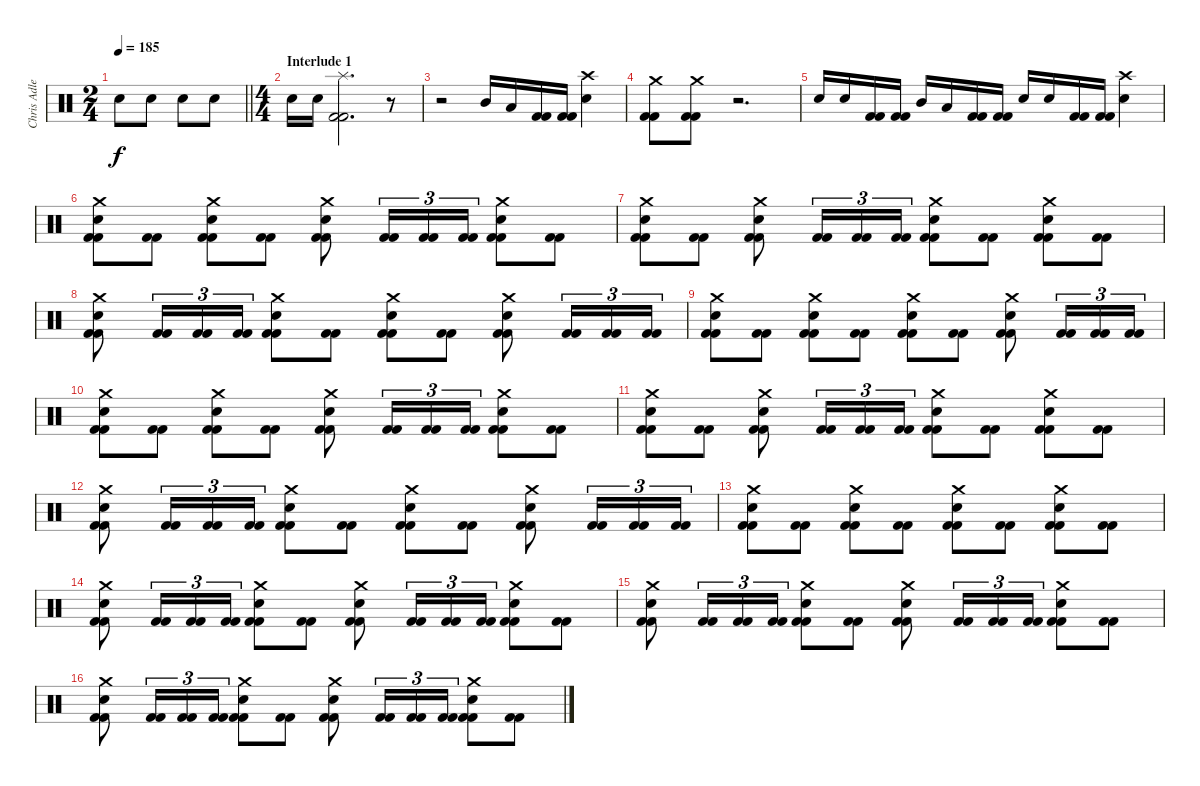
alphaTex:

\track ("Chris Adler" "Chris Adle") {instrument percussion}
\staff {score}
\articulation defaults
\ts (2 4)
\tempo 185
\clef neutral
\barLineRight lightlight
\ks c "Electric Snare (hit)".8{dy f} "Electric Snare (hit)".8 "Electric Snare (hit)".8 "Electric Snare (hit)".8
|
\ts (4 4)
\section ("" "Interlude 1")
"Electric Snare (hit)".16 "Electric Snare (hit)".16 ("Splash (hit)" "Kick (hit) 2" "Kick (hit) 2").2{d} r.8 |
r.2 "Mid Tom (hit)".16 "Low Tom (hit)".16 ("Kick (hit) 2" "Kick (hit) 2").16 ("Kick (hit) 2" "Kick (hit) 2").16 ("Crash high (hit)" "Electric Snare (hit)").4 |
("Crash medium (hit)" "Kick (hit) 2" "Kick (hit) 2").8 ("Crash medium (hit)" "Kick (hit) 2" "Kick (hit) 2").8 r.2{d volume 0} |
"Electric Snare (hit)".16{volume 13} "Electric Snare (hit)".16 ("Kick (hit) 2" "Kick (hit) 2").16 ("Kick (hit) 2" "Kick (hit) 2").16 "Mid Tom (hit)".16 "Low Tom (hit)".16 ("Kick (hit) 2" "Kick (hit) 2").16 ("Kick (hit) 2" "Kick (hit) 2").16 "Electric Snare (hit)".16 "Electric Snare (hit)".16 ("Kick (hit) 2" "Kick (hit) 2").16 ("Kick (hit) 2" "Kick (hit) 2").16 ("Crash high (hit)" "Electric Snare (hit)").4 |
("Crash medium (hit)" "Electric Snare (hit)" "Kick (hit) 2" "Kick (hit) 2").8 ("Kick (hit) 2" "Kick (hit) 2").8 ("Crash medium (hit)" "Electric Snare (hit)" "Kick (hit) 2" "Kick (hit) 2").8 ("Kick (hit) 2" "Kick (hit) 2").8 ("Crash medium (hit)" "Electric Snare (hit)" "Kick (hit) 2" "Kick (hit) 2").8 ("Kick (hit) 2" "Kick (hit) 2").16{tu (3 2)} ("Kick (hit) 2" "Kick (hit) 2").16{tu (3 2)} ("Kick (hit) 2" "Kick (hit) 2").16{tu (3 2)} ("Crash medium (hit)" "Electric Snare (hit)" "Kick (hit) 2" "Kick (hit) 2").8 ("Kick (hit) 2" "Kick (hit) 2").8 |
("Crash medium (hit)" "Electric Snare (hit)" "Kick (hit) 2" "Kick (hit) 2").8 ("Kick (hit) 2" "Kick (hit) 2").8 ("Crash medium (hit)" "Electric Snare (hit)" "Kick (hit) 2" "Kick (hit) 2").8 ("Kick (hit) 2" "Kick (hit) 2").16{tu (3 2)} ("Kick (hit) 2" "Kick (hit) 2").16{tu (3 2)} ("Kick (hit) 2" "Kick (hit) 2").16{tu (3 2)} ("Crash medium (hit)" "Electric Snare (hit)" "Kick (hit) 2" "Kick (hit) 2").8 ("Kick (hit) 2" "Kick (hit) 2").8 ("Crash medium (hit)" "Electric Snare (hit)" "Kick (hit) 2" "Kick (hit) 2").8 ("Kick (hit) 2" "Kick (hit) 2").8 |
("Crash medium (hit)" "Electric Snare (hit)" "Kick (hit) 2" "Kick (hit) 2").8 ("Kick (hit) 2" "Kick (hit) 2").16{tu (3 2)} ("Kick (hit) 2" "Kick (hit) 2").16{tu (3 2)} ("Kick (hit) 2" "Kick (hit) 2").16{tu (3 2)} ("Crash medium (hit)" "Electric Snare (hit)" "Kick (hit) 2" "Kick (hit) 2").8 ("Kick (hit) 2" "Kick (hit) 2").8 ("Crash medium (hit)" "Electric Snare (hit)" "Kick (hit) 2" "Kick (hit) 2").8 ("Kick (hit) 2" "Kick (hit) 2").8 ("Crash medium (hit)" "Electric Snare (hit)" "Kick (hit) 2" "Kick (hit) 2").8 ("Kick (hit) 2" "Kick (hit) 2").16{tu (3 2)} ("Kick (hit) 2" "Kick (hit) 2").16{tu (3 2)} ("Kick (hit) 2" "Kick (hit) 2").16{tu (3 2)} |
("Crash medium (hit)" "Electric Snare (hit)" "Kick (hit) 2" "Kick (hit) 2").8 ("Kick (hit) 2" "Kick (hit) 2").8 ("Crash medium (hit)" "Electric Snare (hit)" "Kick (hit) 2" "Kick (hit) 2").8 ("Kick (hit) 2" "Kick (hit) 2").8 ("Crash medium (hit)" "Electric Snare (hit)" "Kick (hit) 2" "Kick (hit) 2").8 ("Kick (hit) 2" "Kick (hit) 2").8 ("Crash medium (hit)" "Electric Snare (hit)" "Kick (hit) 2" "Kick (hit) 2").8 ("Kick (hit) 2" "Kick (hit) 2").16{tu (3 2)} ("Kick (hit) 2" "Kick (hit) 2").16{tu (3 2)} ("Kick (hit) 2" "Kick (hit) 2").16{tu (3 2)} |
("Crash medium (hit)" "Electric Snare (hit)" "Kick (hit) 2" "Kick (hit) 2").8 ("Kick (hit) 2" "Kick (hit) 2").8 ("Crash medium (hit)" "Electric Snare (hit)" "Kick (hit) 2" "Kick (hit) 2").8 ("Kick (hit) 2" "Kick (hit) 2").8 ("Crash medium (hit)" "Electric Snare (hit)" "Kick (hit) 2" "Kick (hit) 2").8 ("Kick (hit) 2" "Kick (hit) 2").16{tu (3 2)} ("Kick (hit) 2" "Kick (hit) 2").16{tu (3 2)} ("Kick (hit) 2" "Kick (hit) 2").16{tu (3 2)} ("Crash medium (hit)" "Electric Snare (hit)" "Kick (hit) 2" "Kick (hit) 2").8 ("Kick (hit) 2" "Kick (hit) 2").8 |
("Crash medium (hit)" "Electric Snare (hit)" "Kick (hit) 2" "Kick (hit) 2").8 ("Kick (hit) 2" "Kick (hit) 2").8 ("Crash medium (hit)" "Electric Snare (hit)" "Kick (hit) 2" "Kick (hit) 2").8 ("Kick (hit) 2" "Kick (hit) 2").16{tu (3 2)} ("Kick (hit) 2" "Kick (hit) 2").16{tu (3 2)} ("Kick (hit) 2" "Kick (hit) 2").16{tu (3 2)} ("Crash medium (hit)" "Electric Snare (hit)" "Kick (hit) 2" "Kick (hit) 2").8 ("Kick (hit) 2" "Kick (hit) 2").8 ("Crash medium (hit)" "Electric Snare (hit)" "Kick (hit) 2" "Kick (hit) 2").8 ("Kick (hit) 2" "Kick (hit) 2").8 |
("Crash medium (hit)" "Electric Snare (hit)" "Kick (hit) 2" "Kick (hit) 2").8 ("Kick (hit) 2" "Kick (hit) 2").16{tu (3 2)} ("Kick (hit) 2" "Kick (hit) 2").16{tu (3 2)} ("Kick (hit) 2" "Kick (hit) 2").16{tu (3 2)} ("Crash medium (hit)" "Electric Snare (hit)" "Kick (hit) 2" "Kick (hit) 2").8 ("Kick (hit) 2" "Kick (hit) 2").8 ("Crash medium (hit)" "Electric Snare (hit)" "Kick (hit) 2" "Kick (hit) 2").8 ("Kick (hit) 2" "Kick (hit) 2").8 ("Crash medium (hit)" "Electric Snare (hit)" "Kick (hit) 2" "Kick (hit) 2").8 ("Kick (hit) 2" "Kick (hit) 2").16{tu (3 2)} ("Kick (hit) 2" "Kick (hit) 2").16{tu (3 2)} ("Kick (hit) 2" "Kick (hit) 2").16{tu (3 2)} |
("Crash medium (hit)" "Electric Snare (hit)" "Kick (hit) 2" "Kick (hit) 2").8 ("Kick (hit) 2" "Kick (hit) 2").8 ("Crash medium (hit)" "Electric Snare (hit)" "Kick (hit) 2" "Kick (hit) 2").8 ("Kick (hit) 2" "Kick (hit) 2").8 ("Crash medium (hit)" "Electric Snare (hit)" "Kick (hit) 2" "Kick (hit) 2").8 ("Kick (hit) 2" "Kick (hit) 2").8 ("Crash medium (hit)" "Electric Snare (hit)" "Kick (hit) 2" "Kick (hit) 2").8 ("Kick (hit) 2" "Kick (hit) 2").8 |
("Crash medium (hit)" "Electric Snare (hit)" "Kick (hit) 2" "Kick (hit) 2").8 ("Kick (hit) 2" "Kick (hit) 2").16{tu (3 2)} ("Kick (hit) 2" "Kick (hit) 2").16{tu (3 2)} ("Kick (hit) 2" "Kick (hit) 2").16{tu (3 2)} ("Crash medium (hit)" "Electric Snare (hit)" "Kick (hit) 2" "Kick (hit) 2").8 ("Kick (hit) 2" "Kick (hit) 2").8 ("Crash medium (hit)" "Electric Snare (hit)" "Kick (hit) 2" "Kick (hit) 2").8 ("Kick (hit) 2" "Kick (hit) 2").16{tu (3 2)} ("Kick (hit) 2" "Kick (hit) 2").16{tu (3 2)} ("Kick (hit) 2" "Kick (hit) 2").16{tu (3 2)} ("Crash medium (hit)" "Electric Snare (hit)" "Kick (hit) 2" "Kick (hit) 2").8 ("Kick (hit) 2" "Kick (hit) 2").8 |
("Crash medium (hit)" "Electric Snare (hit)" "Kick (hit) 2" "Kick (hit) 2").8 ("Kick (hit) 2" "Kick (hit) 2").16{tu (3 2)} ("Kick (hit) 2" "Kick (hit) 2").16{tu (3 2)} ("Kick (hit) 2" "Kick (hit) 2").16{tu (3 2)} ("Crash medium (hit)" "Electric Snare (hit)" "Kick (hit) 2" "Kick (hit) 2").8 ("Kick (hit) 2" "Kick (hit) 2").8 ("Crash medium (hit)" "Electric Snare (hit)" "Kick (hit) 2" "Kick (hit) 2").8 ("Kick (hit) 2" "Kick (hit) 2").16{tu (3 2)} ("Kick (hit) 2" "Kick (hit) 2").16{tu (3 2)} ("Kick (hit) 2" "Kick (hit) 2").16{tu (3 2)} ("Crash medium (hit)" "Electric Snare (hit)" "Kick (hit) 2" "Kick (hit) 2").8 ("Kick (hit) 2" "Kick (hit) 2").8 |
("Crash medium (hit)" "Electric Snare (hit)" "Kick (hit) 2" "Kick (hit) 2").8 ("Kick (hit) 2" "Kick (hit) 2").16{tu (3 2)} ("Kick (hit) 2" "Kick (hit) 2").16{tu (3 2)} ("Kick (hit) 2" "Kick (hit) 2").16{tu (3 2)} ("Crash medium (hit)" "Electric Snare (hit)" "Kick (hit) 2" "Kick (hit) 2").8 ("Kick (hit) 2" "Kick (hit) 2").8 ("Crash medium (hit)" "Electric Snare (hit)" "Kick (hit) 2" "Kick (hit) 2").8 ("Kick (hit) 2" "Kick (hit) 2").16{tu (3 2)} ("Kick (hit) 2" "Kick (hit) 2").16{tu (3 2)} ("Kick (hit) 2" "Kick (hit) 2").16{tu (3 2)} ("Crash medium (hit)" "Electric Snare (hit)" "Kick (hit) 2" "Kick (hit) 2").8 ("Kick (hit) 2" "Kick (hit) 2").8
